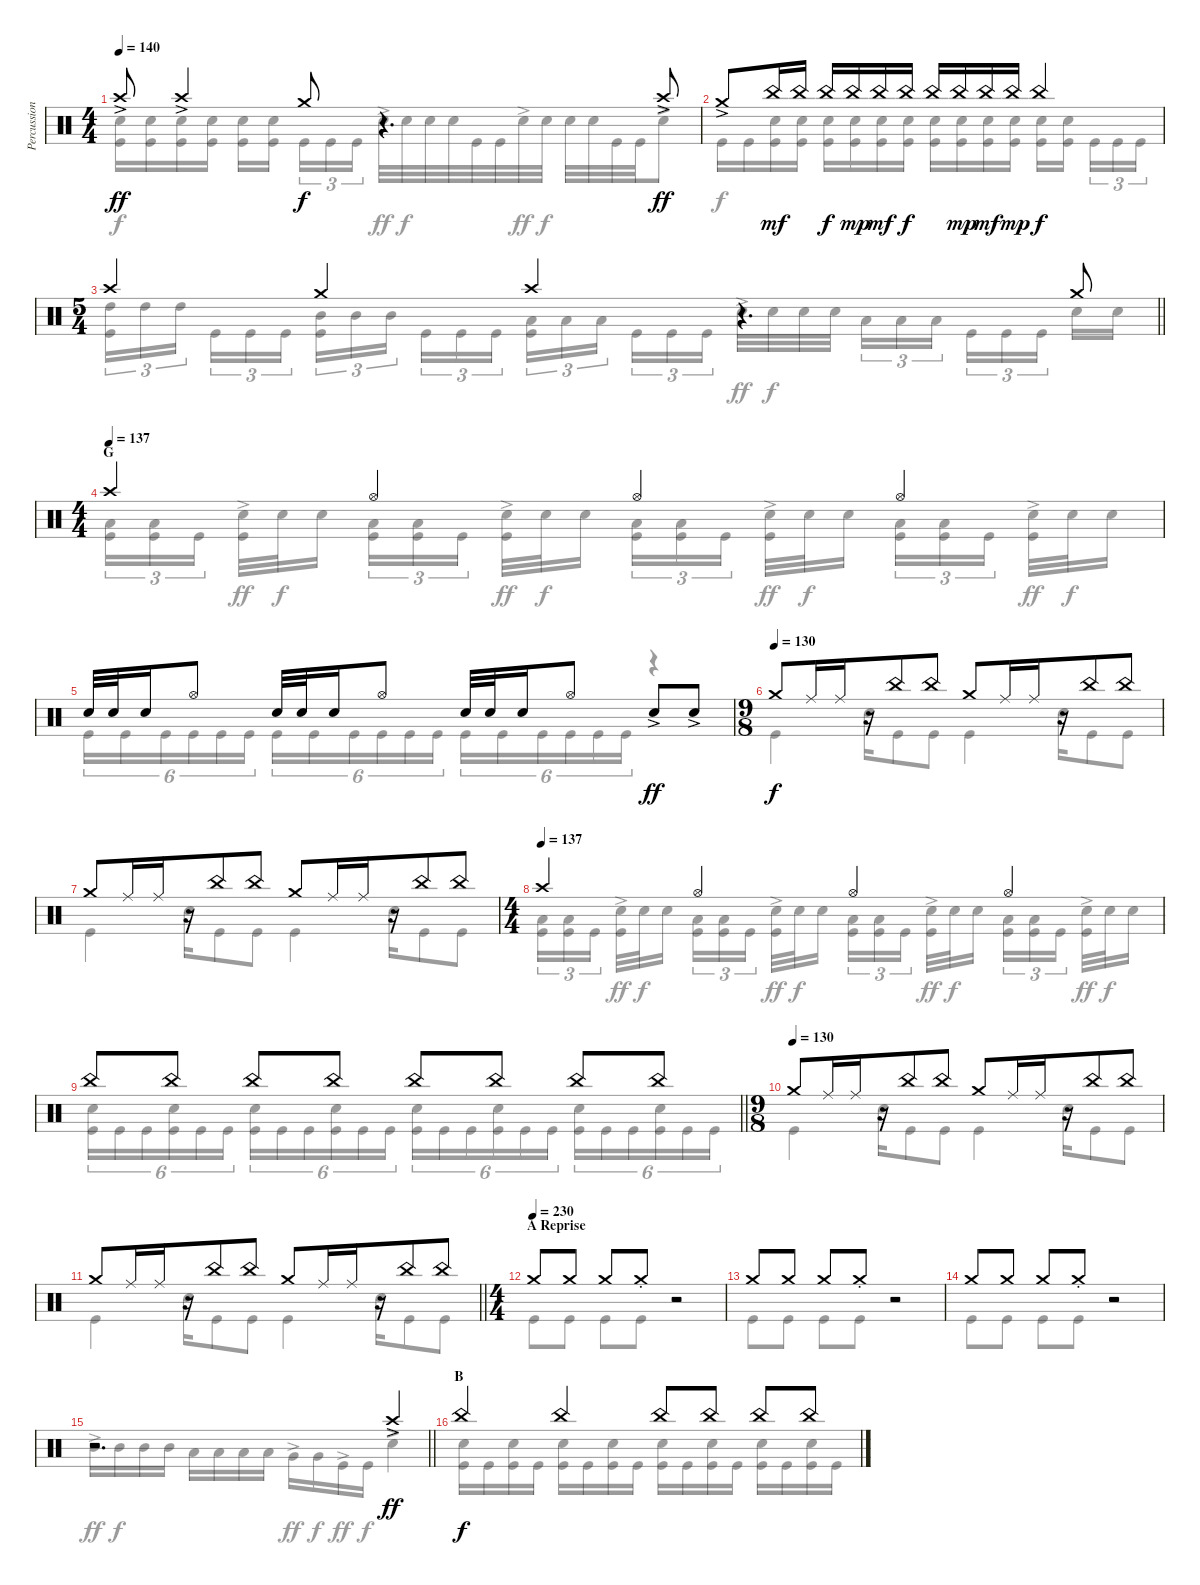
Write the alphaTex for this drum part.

\track ("Percussions" "Percussion") {instrument percussion}
\staff {score}
\articulation defaults
\voice
\ts (4 4)
\tempo 140
\clef neutral
\ks c "Crash high (hit)"{ac}.8{dy ff} "Crash high (hit)"{ac}.4 "Crash medium (hit)".8{dy f}
r.4{d} "Crash high (hit)"{ac}.8{dy ff} |
"Crash medium (hit)"{ac}.8 "China (hit)".16{dy mf} "China (hit)".16 "China (hit)".16{dy f} "China (hit)".16{dy mp} "China (hit)".16{dy mf} "China (hit)".16{dy f} "China (hit)".16 "China (hit)".16{dy mp} "China (hit)".16{dy mf} "China (hit)".16{dy mp} "China (hit)".4{dy f} |
\ts (5 4)
\barLineRight lightlight "Crash high (hit)".4 "Crash medium (hit)".4 "Crash high (hit)".4
r.4{d} "Crash medium (hit)".8 |
\ts (4 4)
\section ("" "G")
\tempo (137)
"Crash high (hit)".4 "Hi-Hat (open)".4 "Hi-Hat (open)".4 "Hi-Hat (open)".4 |
"Snare (hit) 2".32 "Snare (hit) 2".32 "Snare (hit) 2".16 "Hi-Hat (open)".8 "Snare (hit) 2".32 "Snare (hit) 2".32 "Snare (hit) 2".16 "Hi-Hat (open)".8 "Snare (hit) 2".32 "Snare (hit) 2".32 "Snare (hit) 2".16 "Hi-Hat (open)".8 "Snare (hit) 2"{ac}.8{dy ff} "Snare (hit) 2"{ac}.8 |
\ts (9 8)
\tempo (130)
"Crash medium (hit)".8{dy f} "Ride (middle)".16 "Ride (middle)".16 r.16 "China (hit)".8{beam merge} "China (hit)".8{beam split} "Crash medium (hit)".8 "Ride (middle)".16{beam merge} "Ride (middle)".16 r.16 "China (hit)".8 "China (hit)".8 |
"Crash medium (hit)".8 "Ride (middle)".16 "Ride (middle)".16 r.16 "China (hit)".8{beam merge} "China (hit)".8{beam split} "Crash medium (hit)".8 "Ride (middle)".16{beam merge} "Ride (middle)".16 r.16 "China (hit)".8 "China (hit)".8 |
\ts (4 4)
\tempo (137)
"Crash high (hit)".4 "Hi-Hat (open)".4 "Hi-Hat (open)".4 "Hi-Hat (open)".4 |
\barLineRight lightlight "China (hit)".8 "China (hit)".8 "China (hit)".8 "China (hit)".8 "China (hit)".8 "China (hit)".8 "China (hit)".8 "China (hit)".8
|
\ts (9 8)
\tempo (130)
"Crash medium (hit)".8 "Ride (middle)".16 "Ride (middle)".16 r.16 "China (hit)".8{beam merge} "China (hit)".8{beam split} "Crash medium (hit)".8 "Ride (middle)".16{beam merge} "Ride (middle)".16 r.16 "China (hit)".8 "China (hit)".8 |
\barLineRight lightlight "Crash medium (hit)".8 "Ride (middle)".16 "Ride (middle)".16
r.16 "China (hit)".8{beam merge} "China (hit)".8{beam split} "Crash medium (hit)".8 "Ride (middle)".16{beam merge} "Ride (middle)".16 r.16 "China (hit)".8 "China (hit)".8 |
\ts (4 4)
\section ("" "A Reprise")
\tempo (230)
"Crash medium (hit)".8 "Crash medium (hit)".8 "Crash medium (hit)".8 "Crash medium (hit)"{st}.8 r.2{volume 0} |
"Crash medium (hit)".8{volume 16} "Crash medium (hit)".8 "Crash medium (hit)".8 "Crash medium (hit)"{st}.8 r.2{volume 0} |
"Crash medium (hit)".8{volume 16} "Crash medium (hit)".8 "Crash medium (hit)".8 "Crash medium (hit)"{st}.8 r.2{volume 0} |
\barLineRight lightlight
r.2{d volume 16} "Crash high (hit)"{ac}.4{dy ff} |
\section ("" "B")
"China (hit)".4{dy f} "China (hit)".4 "China (hit)".8 "China (hit)".8 "China (hit)".8 "China (hit)".8
\voice
\clef neutral
\ottava regular
\simile none
\ks c
("Snare (hit) 2" "Kick (hit)").16{dy f} ("Snare (hit) 2" "Kick (hit)").16 ("Snare (hit) 2" "Kick (hit)").16 ("Snare (hit) 2" "Kick (hit)").16 ("Snare (hit) 2" "Kick (hit)").16 ("Snare (hit) 2" "Kick (hit)").16{beam splitsecondary} "Kick (hit)".16{tu (3 2)} "Kick (hit)".16{tu (3 2)} "Kick (hit)".16{tu (3 2)} "Snare (hit) 2"{ac}.32{dy ff} "Snare (hit) 2".32{dy f} "Snare (hit) 2".32 "Snare (hit) 2".32 "Kick (hit)".32 "Kick (hit)".32 "Snare (hit) 2"{ac}.32{dy ff} "Snare (hit) 2".32{dy f} "Snare (hit) 2".32 "Snare (hit) 2".32 "Kick (hit)".32 "Kick (hit)".32 "Snare (hit) 2"{ac}.8{dy ff} |
"Kick (hit)".16{dy f} "Kick (hit)".16 ("Snare (hit) 2" "Kick (hit)").16 ("Snare (hit) 2" "Kick (hit)").16 ("Snare (hit) 2" "Kick (hit)").16 ("Snare (hit) 2" "Kick (hit)").16 ("Snare (hit) 2" "Kick (hit)").16 ("Snare (hit) 2" "Kick (hit)").16 ("Snare (hit) 2" "Kick (hit)").16 ("Snare (hit) 2" "Kick (hit)").16 ("Snare (hit) 2" "Kick (hit)").16 ("Snare (hit) 2" "Kick (hit)").16 ("Snare (hit) 2" "Kick (hit)").16 ("Snare (hit) 2" "Kick (hit)").16{beam splitsecondary} "Kick (hit)".16{tu (3 2)} "Kick (hit)".16{tu (3 2)} "Kick (hit)".16{tu (3 2)} |
\barLineRight lightlight
("High Tom (hit)" "Kick (hit)").16{tu (3 2)} "High Tom (hit)".16{tu (3 2)} "High Tom (hit)".16{tu (3 2) beam splitsecondary} "Kick (hit)".16{tu (3 2)} "Kick (hit)".16{tu (3 2)} "Kick (hit)".16{tu (3 2)} ("Mid Tom (hit)" "Kick (hit)").16{tu (3 2)} "Mid Tom (hit)".16{tu (3 2)} "Mid Tom (hit)".16{tu (3 2) beam splitsecondary} "Kick (hit)".16{tu (3 2)} "Kick (hit)".16{tu (3 2)} "Kick (hit)".16{tu (3 2)} ("Low Tom (hit)" "Kick (hit)").16{tu (3 2)} "Low Tom (hit)".16{tu (3 2)} "Low Tom (hit)".16{tu (3 2) beam splitsecondary} "Kick (hit)".16{tu (3 2)} "Kick (hit)".16{tu (3 2)} "Kick (hit)".16{tu (3 2)} "Snare (hit) 2"{ac}.32{dy ff} "Snare (hit) 2".32{dy f} "Snare (hit) 2".32 "Snare (hit) 2".32{beam splitsecondary} "Low Tom (hit)".16{tu (3 2)} "Low Tom (hit)".16{tu (3 2)} "Low Tom (hit)".16{tu (3 2)} "Kick (hit)".16{tu (3 2)} "Kick (hit)".16{tu (3 2)} "Kick (hit)".16{tu (3 2) beam splitsecondary} "Snare (hit) 2".16 "Snare (hit) 2".16 |
("Low Tom (hit)" "Kick (hit)").16{tu (3 2)} ("Low Tom (hit)" "Kick (hit)").16{tu (3 2)} "Kick (hit)".16{tu (3 2) beam splitsecondary} ("Snare (hit) 2"{ac} "Kick (hit)").32{dy ff} "Snare (hit) 2".32{dy f} "Snare (hit) 2".16 ("Low Tom (hit)" "Kick (hit)").16{tu (3 2)} ("Low Tom (hit)" "Kick (hit)").16{tu (3 2)} "Kick (hit)".16{tu (3 2) beam splitsecondary} ("Snare (hit) 2"{ac} "Kick (hit)").32{dy ff} "Snare (hit) 2".32{dy f} "Snare (hit) 2".16 ("Low Tom (hit)" "Kick (hit)").16{tu (3 2)} ("Low Tom (hit)" "Kick (hit)").16{tu (3 2)} "Kick (hit)".16{tu (3 2) beam splitsecondary} ("Snare (hit) 2"{ac} "Kick (hit)").32{dy ff} "Snare (hit) 2".32{dy f} "Snare (hit) 2".16 ("Low Tom (hit)" "Kick (hit)").16{tu (3 2)} ("Low Tom (hit)" "Kick (hit)").16{tu (3 2)} "Kick (hit)".16{tu (3 2) beam splitsecondary} ("Snare (hit) 2"{ac} "Kick (hit)").32{dy ff} "Snare (hit) 2".32{dy f} "Snare (hit) 2".16 |
"Kick (hit)".16{tu (6 4)} "Kick (hit)".16{tu (6 4)} "Kick (hit)".16{tu (6 4)} "Kick (hit)".16{tu (6 4)} "Kick (hit)".16{tu (6 4)} "Kick (hit)".16{tu (6 4)} "Kick (hit)".16{tu (6 4)} "Kick (hit)".16{tu (6 4)} "Kick (hit)".16{tu (6 4)} "Kick (hit)".16{tu (6 4)} "Kick (hit)".16{tu (6 4)} "Kick (hit)".16{tu (6 4)} "Kick (hit)".16{tu (6 4)} "Kick (hit)".16{tu (6 4)} "Kick (hit)".16{tu (6 4)} "Kick (hit)".16{tu (6 4)} "Kick (hit)".16{tu (6 4)} "Kick (hit)".16{tu (6 4)} r.4 |
"Kick (hit)".4 "Snare (hit) 2".16 "Kick (hit)".8{beam merge} "Kick (hit)".8 "Kick (hit)".4 "Snare (hit) 2".16 "Kick (hit)".8 "Kick (hit)".8 |
"Kick (hit)".4 "Snare (hit) 2".16 "Kick (hit)".8{beam merge} "Kick (hit)".8 "Kick (hit)".4 "Snare (hit) 2".16 "Kick (hit)".8 "Kick (hit)".8 |
("Low Tom (hit)" "Kick (hit)").16{tu (3 2)} ("Low Tom (hit)" "Kick (hit)").16{tu (3 2)} "Kick (hit)".16{tu (3 2) beam splitsecondary} ("Snare (hit) 2"{ac} "Kick (hit)").32{dy ff} "Snare (hit) 2".32{dy f} "Snare (hit) 2".16 ("Low Tom (hit)" "Kick (hit)").16{tu (3 2)} ("Low Tom (hit)" "Kick (hit)").16{tu (3 2)} "Kick (hit)".16{tu (3 2) beam splitsecondary} ("Snare (hit) 2"{ac} "Kick (hit)").32{dy ff} "Snare (hit) 2".32{dy f} "Snare (hit) 2".16 ("Low Tom (hit)" "Kick (hit)").16{tu (3 2)} ("Low Tom (hit)" "Kick (hit)").16{tu (3 2)} "Kick (hit)".16{tu (3 2) beam splitsecondary} ("Snare (hit) 2"{ac} "Kick (hit)").32{dy ff} "Snare (hit) 2".32{dy f} "Snare (hit) 2".16 ("Low Tom (hit)" "Kick (hit)").16{tu (3 2)} ("Low Tom (hit)" "Kick (hit)").16{tu (3 2)} "Kick (hit)".16{tu (3 2) beam splitsecondary} ("Snare (hit) 2"{ac} "Kick (hit)").32{dy ff} "Snare (hit) 2".32{dy f} "Snare (hit) 2".16 |
\barLineRight lightlight
("Snare (hit) 2" "Kick (hit)").16{tu (6 4)} "Kick (hit)".16{tu (6 4)} "Kick (hit)".16{tu (6 4)} ("Snare (hit) 2" "Kick (hit)").16{tu (6 4)} "Kick (hit)".16{tu (6 4)} "Kick (hit)".16{tu (6 4)} ("Snare (hit) 2" "Kick (hit)").16{tu (6 4)} "Kick (hit)".16{tu (6 4)} "Kick (hit)".16{tu (6 4)} ("Snare (hit) 2" "Kick (hit)").16{tu (6 4)} "Kick (hit)".16{tu (6 4)} "Kick (hit)".16{tu (6 4)} ("Snare (hit) 2" "Kick (hit)").16{tu (6 4)} "Kick (hit)".16{tu (6 4)} "Kick (hit)".16{tu (6 4)} ("Snare (hit) 2" "Kick (hit)").16{tu (6 4)} "Kick (hit)".16{tu (6 4)} "Kick (hit)".16{tu (6 4)} ("Snare (hit) 2" "Kick (hit)").16{tu (6 4)} "Kick (hit)".16{tu (6 4)} "Kick (hit)".16{tu (6 4)} ("Snare (hit) 2" "Kick (hit)").16{tu (6 4)} "Kick (hit)".16{tu (6 4)} "Kick (hit)".16{tu (6 4)} |
"Kick (hit)".4 "Snare (hit) 2".16 "Kick (hit)".8{beam merge} "Kick (hit)".8 "Kick (hit)".4 "Snare (hit) 2".16 "Kick (hit)".8 "Kick (hit)".8 |
\barLineRight lightlight "Kick (hit)".4 "Snare (hit) 2".16 "Kick (hit)".8{beam merge} "Kick (hit)".8 "Kick (hit)".4 "Snare (hit) 2".16 "Kick (hit)".8 "Kick (hit)".8
|
"Kick (hit)".8 "Kick (hit)".8 "Kick (hit)".8 "Kick (hit)".8 r.2 |
"Kick (hit)".8 "Kick (hit)".8 "Kick (hit)".8 "Kick (hit)".8 r.2 |
"Kick (hit)".8 "Kick (hit)".8 "Kick (hit)".8 "Kick (hit)".8 r.2 |
\barLineRight lightlight "Mid Tom (hit)"{ac}.16{dy ff} "Mid Tom (hit)".16{dy f} "Mid Tom (hit)".16 "Mid Tom (hit)".16 "Low Tom (hit)".16 "Low Tom (hit)".16 "Low Tom (hit)".16 "Low Tom (hit)".16 "Very Low Tom (hit)"{ac}.16{dy ff} "Very Low Tom (hit)".16{dy f} "Kick (hit)"{ac}.16{dy ff} "Kick (hit)".16{dy f} "Snare (hit) 2"{ac}.4{dy ff}
|
("Snare (hit) 2" "Kick (hit)").16{dy f} "Kick (hit)".16 ("Snare (hit) 2" "Kick (hit)").16 "Kick (hit)".16 ("Snare (hit) 2" "Kick (hit)").16 "Kick (hit)".16 ("Snare (hit) 2" "Kick (hit)").16 "Kick (hit)".16 ("Snare (hit) 2" "Kick (hit)").16 "Kick (hit)".16 ("Snare (hit) 2" "Kick (hit)").16 "Kick (hit)".16 ("Snare (hit) 2" "Kick (hit)").16 "Kick (hit)".16 ("Snare (hit) 2" "Kick (hit)").16 "Kick (hit)".16
